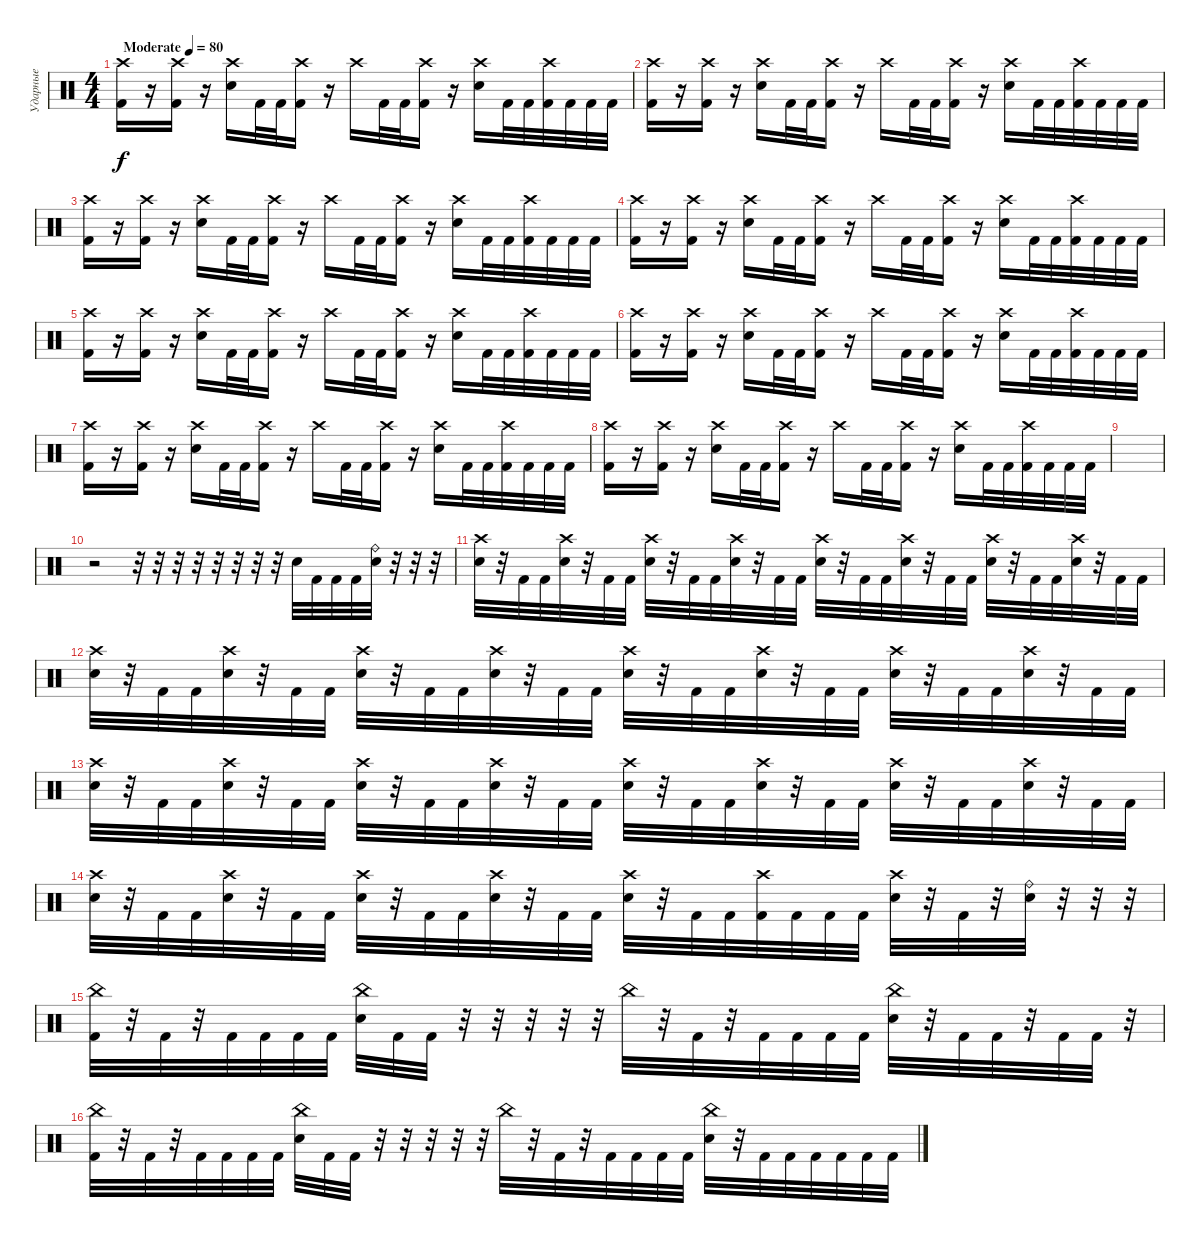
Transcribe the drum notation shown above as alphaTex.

\track ("Ударные" "Ударные") {instrument percussion}
\staff {score}
\articulation defaults
\ts (4 4)
\tempo (80 "Moderate")
\clef neutral
\ks c
("Crash high (hit)" "Kick (hit) 2").16{dy f} r.16 ("Crash high (hit)" "Kick (hit) 2").16 r.16 ("Crash high (hit)" "Snare (hit) 2").16 "Kick (hit) 2".32 "Kick (hit) 2".32 ("Crash high (hit)" "Kick (hit) 2").16 r.16 "Crash high (hit)".16 "Kick (hit) 2".32 "Kick (hit) 2".32 ("Crash high (hit)" "Kick (hit) 2").16 r.16 ("Crash high (hit)" "Snare (hit) 2").16 "Kick (hit) 2".32 "Kick (hit) 2".32 ("Crash high (hit)" "Kick (hit) 2").32 "Kick (hit) 2".32 "Kick (hit) 2".32 "Kick (hit) 2".32 |
("Crash high (hit)" "Kick (hit) 2").16 r.16 ("Crash high (hit)" "Kick (hit) 2").16 r.16 ("Crash high (hit)" "Snare (hit) 2").16 "Kick (hit) 2".32 "Kick (hit) 2".32 ("Crash high (hit)" "Kick (hit) 2").16 r.16 "Crash high (hit)".16 "Kick (hit) 2".32 "Kick (hit) 2".32 ("Crash high (hit)" "Kick (hit) 2").16 r.16 ("Crash high (hit)" "Snare (hit) 2").16 "Kick (hit) 2".32 "Kick (hit) 2".32 ("Crash high (hit)" "Kick (hit) 2").32 "Kick (hit) 2".32 "Kick (hit) 2".32 "Kick (hit) 2".32 |
("Crash high (hit)" "Kick (hit) 2").16 r.16 ("Crash high (hit)" "Kick (hit) 2").16 r.16 ("Crash high (hit)" "Snare (hit) 2").16 "Kick (hit) 2".32 "Kick (hit) 2".32 ("Crash high (hit)" "Kick (hit) 2").16 r.16 "Crash high (hit)".16 "Kick (hit) 2".32 "Kick (hit) 2".32 ("Crash high (hit)" "Kick (hit) 2").16 r.16 ("Crash high (hit)" "Snare (hit) 2").16 "Kick (hit) 2".32 "Kick (hit) 2".32 ("Crash high (hit)" "Kick (hit) 2").32 "Kick (hit) 2".32 "Kick (hit) 2".32 "Kick (hit) 2".32 |
("Crash high (hit)" "Kick (hit) 2").16 r.16 ("Crash high (hit)" "Kick (hit) 2").16 r.16 ("Crash high (hit)" "Snare (hit) 2").16 "Kick (hit) 2".32 "Kick (hit) 2".32 ("Crash high (hit)" "Kick (hit) 2").16 r.16 "Crash high (hit)".16 "Kick (hit) 2".32 "Kick (hit) 2".32 ("Crash high (hit)" "Kick (hit) 2").16 r.16 ("Crash high (hit)" "Snare (hit) 2").16 "Kick (hit) 2".32 "Kick (hit) 2".32 ("Crash high (hit)" "Kick (hit) 2").32 "Kick (hit) 2".32 "Kick (hit) 2".32 "Kick (hit) 2".32 |
("Crash high (hit)" "Kick (hit) 2").16 r.16 ("Crash high (hit)" "Kick (hit) 2").16 r.16 ("Crash high (hit)" "Snare (hit) 2").16 "Kick (hit) 2".32 "Kick (hit) 2".32 ("Crash high (hit)" "Kick (hit) 2").16 r.16 "Crash high (hit)".16 "Kick (hit) 2".32 "Kick (hit) 2".32 ("Crash high (hit)" "Kick (hit) 2").16 r.16 ("Crash high (hit)" "Snare (hit) 2").16 "Kick (hit) 2".32 "Kick (hit) 2".32 ("Crash high (hit)" "Kick (hit) 2").32 "Kick (hit) 2".32 "Kick (hit) 2".32 "Kick (hit) 2".32 |
("Crash high (hit)" "Kick (hit) 2").16 r.16 ("Crash high (hit)" "Kick (hit) 2").16 r.16 ("Crash high (hit)" "Snare (hit) 2").16 "Kick (hit) 2".32 "Kick (hit) 2".32 ("Crash high (hit)" "Kick (hit) 2").16 r.16 "Crash high (hit)".16 "Kick (hit) 2".32 "Kick (hit) 2".32 ("Crash high (hit)" "Kick (hit) 2").16 r.16 ("Crash high (hit)" "Snare (hit) 2").16 "Kick (hit) 2".32 "Kick (hit) 2".32 ("Crash high (hit)" "Kick (hit) 2").32 "Kick (hit) 2".32 "Kick (hit) 2".32 "Kick (hit) 2".32 |
("Crash high (hit)" "Kick (hit) 2").16 r.16 ("Crash high (hit)" "Kick (hit) 2").16 r.16 ("Crash high (hit)" "Snare (hit) 2").16 "Kick (hit) 2".32 "Kick (hit) 2".32 ("Crash high (hit)" "Kick (hit) 2").16 r.16 "Crash high (hit)".16 "Kick (hit) 2".32 "Kick (hit) 2".32 ("Crash high (hit)" "Kick (hit) 2").16 r.16 ("Crash high (hit)" "Snare (hit) 2").16 "Kick (hit) 2".32 "Kick (hit) 2".32 ("Crash high (hit)" "Kick (hit) 2").32 "Kick (hit) 2".32 "Kick (hit) 2".32 "Kick (hit) 2".32 |
("Crash high (hit)" "Kick (hit) 2").16 r.16 ("Crash high (hit)" "Kick (hit) 2").16 r.16 ("Crash high (hit)" "Snare (hit) 2").16 "Kick (hit) 2".32 "Kick (hit) 2".32 ("Crash high (hit)" "Kick (hit) 2").16 r.16 "Crash high (hit)".16 "Kick (hit) 2".32 "Kick (hit) 2".32 ("Crash high (hit)" "Kick (hit) 2").16 r.16 ("Crash high (hit)" "Snare (hit) 2").16 "Kick (hit) 2".32 "Kick (hit) 2".32 ("Crash high (hit)" "Kick (hit) 2").32 "Kick (hit) 2".32 "Kick (hit) 2".32 "Kick (hit) 2".32 |
|
r.2 r.32 r.32 r.32 r.32 r.32 r.32 r.32 r.32 "Snare (hit) 2".32 "Kick (hit) 2".32 "Kick (hit) 2".32 "Kick (hit) 2".32 ("Ride (bell)" "Snare (hit) 2").32 r.32 r.32 r.32 |
("Crash high (hit)" "Snare (hit) 2").32 r.32 "Kick (hit) 2".32 "Kick (hit) 2".32 ("Crash high (hit)" "Snare (hit) 2").32 r.32 "Kick (hit) 2".32 "Kick (hit) 2".32 ("Crash high (hit)" "Snare (hit) 2").32 r.32 "Kick (hit) 2".32 "Kick (hit) 2".32 ("Crash high (hit)" "Snare (hit) 2").32 r.32 "Kick (hit) 2".32 "Kick (hit) 2".32 ("Crash high (hit)" "Snare (hit) 2").32 r.32 "Kick (hit) 2".32 "Kick (hit) 2".32 ("Crash high (hit)" "Snare (hit) 2").32 r.32 "Kick (hit) 2".32 "Kick (hit) 2".32 ("Crash high (hit)" "Snare (hit) 2").32 r.32 "Kick (hit) 2".32 "Kick (hit) 2".32 ("Crash high (hit)" "Snare (hit) 2").32 r.32 "Kick (hit) 2".32 "Kick (hit) 2".32 |
("Crash high (hit)" "Snare (hit) 2").32 r.32 "Kick (hit) 2".32 "Kick (hit) 2".32 ("Crash high (hit)" "Snare (hit) 2").32 r.32 "Kick (hit) 2".32 "Kick (hit) 2".32 ("Crash high (hit)" "Snare (hit) 2").32 r.32 "Kick (hit) 2".32 "Kick (hit) 2".32 ("Crash high (hit)" "Snare (hit) 2").32 r.32 "Kick (hit) 2".32 "Kick (hit) 2".32 ("Crash high (hit)" "Snare (hit) 2").32 r.32 "Kick (hit) 2".32 "Kick (hit) 2".32 ("Crash high (hit)" "Snare (hit) 2").32 r.32 "Kick (hit) 2".32 "Kick (hit) 2".32 ("Crash high (hit)" "Snare (hit) 2").32 r.32 "Kick (hit) 2".32 "Kick (hit) 2".32 ("Crash high (hit)" "Snare (hit) 2").32 r.32 "Kick (hit) 2".32 "Kick (hit) 2".32 |
("Crash high (hit)" "Snare (hit) 2").32 r.32 "Kick (hit) 2".32 "Kick (hit) 2".32 ("Crash high (hit)" "Snare (hit) 2").32 r.32 "Kick (hit) 2".32 "Kick (hit) 2".32 ("Crash high (hit)" "Snare (hit) 2").32 r.32 "Kick (hit) 2".32 "Kick (hit) 2".32 ("Crash high (hit)" "Snare (hit) 2").32 r.32 "Kick (hit) 2".32 "Kick (hit) 2".32 ("Crash high (hit)" "Snare (hit) 2").32 r.32 "Kick (hit) 2".32 "Kick (hit) 2".32 ("Crash high (hit)" "Snare (hit) 2").32 r.32 "Kick (hit) 2".32 "Kick (hit) 2".32 ("Crash high (hit)" "Snare (hit) 2").32 r.32 "Kick (hit) 2".32 "Kick (hit) 2".32 ("Crash high (hit)" "Snare (hit) 2").32 r.32 "Kick (hit) 2".32 "Kick (hit) 2".32 |
("Crash high (hit)" "Snare (hit) 2").32 r.32 "Kick (hit) 2".32 "Kick (hit) 2".32 ("Crash high (hit)" "Snare (hit) 2").32 r.32 "Kick (hit) 2".32 "Kick (hit) 2".32 ("Crash high (hit)" "Snare (hit) 2").32 r.32 "Kick (hit) 2".32 "Kick (hit) 2".32 ("Crash high (hit)" "Snare (hit) 2").32 r.32 "Kick (hit) 2".32 "Kick (hit) 2".32 ("Crash high (hit)" "Snare (hit) 2").32 r.32 "Kick (hit) 2".32 "Kick (hit) 2".32 ("Crash high (hit)" "Kick (hit) 2").32 "Kick (hit) 2".32 "Kick (hit) 2".32 "Kick (hit) 2".32 ("Crash high (hit)" "Snare (hit) 2").32 r.32 "Kick (hit) 2".32 r.32 ("Ride (bell)" "Snare (hit) 2").32 r.32 r.32 r.32 |
("China (hit)" "Kick (hit) 2").32 r.32 "Kick (hit) 2".32 r.32 "Kick (hit) 2".32 "Kick (hit) 2".32 "Kick (hit) 2".32 "Kick (hit) 2".32 ("China (hit)" "Snare (hit) 2").32 "Kick (hit) 2".32 "Kick (hit) 2".32 r.32 r.32 r.32 r.32 r.32 "China (hit)".32 r.32 "Kick (hit) 2".32 r.32 "Kick (hit) 2".32 "Kick (hit) 2".32 "Kick (hit) 2".32 "Kick (hit) 2".32 ("China (hit)" "Snare (hit) 2").32 r.32 "Kick (hit) 2".32 "Kick (hit) 2".32 r.32 "Kick (hit) 2".32 "Kick (hit) 2".32 r.32 |
("China (hit)" "Kick (hit) 2").32 r.32 "Kick (hit) 2".32 r.32 "Kick (hit) 2".32 "Kick (hit) 2".32 "Kick (hit) 2".32 "Kick (hit) 2".32 ("China (hit)" "Snare (hit) 2").32 "Kick (hit) 2".32 "Kick (hit) 2".32 r.32 r.32 r.32 r.32 r.32 "China (hit)".32 r.32 "Kick (hit) 2".32 r.32 "Kick (hit) 2".32 "Kick (hit) 2".32 "Kick (hit) 2".32 "Kick (hit) 2".32 ("China (hit)" "Snare (hit) 2").32 r.32 "Kick (hit) 2".32 "Kick (hit) 2".32 "Kick (hit) 2".32 "Kick (hit) 2".32 "Kick (hit) 2".32 "Kick (hit) 2".32
